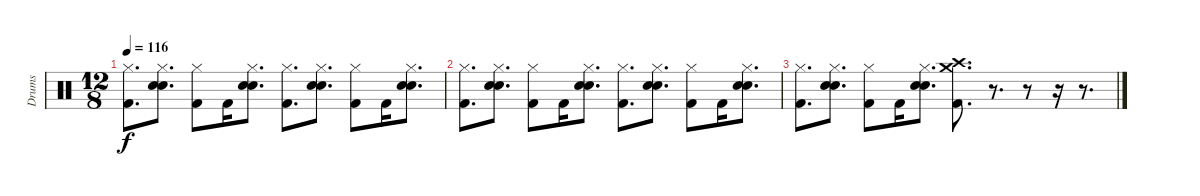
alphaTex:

\track ("Drums" "Drums") {instrument percussion}
\staff {score}
\articulation defaults
\ts (12 8)
\tempo 116
\clef neutral
\ks c
("Hi-Hat (closed)" "Kick (hit) 2").8{d dy f} ("Hi-Hat (closed)" "Snare (hit) 2" "Hand Clap (hit)").8{d} ("Hi-Hat (closed)" "Kick (hit) 2").8 "Kick (hit) 2".16 ("Hi-Hat (closed)" "Snare (hit) 2" "Hand Clap (hit)").8{d} ("Hi-Hat (closed)" "Kick (hit) 2").8{d} ("Hi-Hat (closed)" "Snare (hit) 2" "Hand Clap (hit)").8{d} ("Hi-Hat (closed)" "Kick (hit) 2").8 "Kick (hit) 2".16 ("Hi-Hat (closed)" "Snare (hit) 2" "Hand Clap (hit)").8{d} |
("Hi-Hat (closed)" "Kick (hit) 2").8{d} ("Hi-Hat (closed)" "Snare (hit) 2" "Hand Clap (hit)").8{d} ("Hi-Hat (closed)" "Kick (hit) 2").8 "Kick (hit) 2".16 ("Hi-Hat (closed)" "Snare (hit) 2" "Hand Clap (hit)").8{d} ("Hi-Hat (closed)" "Kick (hit) 2").8{d} ("Hi-Hat (closed)" "Snare (hit) 2" "Hand Clap (hit)").8{d} ("Hi-Hat (closed)" "Kick (hit) 2").8 "Kick (hit) 2".16 ("Hi-Hat (closed)" "Snare (hit) 2" "Hand Clap (hit)").8{d} |
("Hi-Hat (closed)" "Kick (hit) 2").8{d} ("Hi-Hat (closed)" "Snare (hit) 2" "Hand Clap (hit)").8{d} ("Hi-Hat (closed)" "Kick (hit) 2").8 "Kick (hit) 2".16 ("Hi-Hat (closed)" "Snare (hit) 2" "Hand Clap (hit)").8{d} ("Crash high (hit)" "Crash medium (hit)" "Kick (hit) 2").8{d} r.8{d} r.8 r.16 r.8{d}
